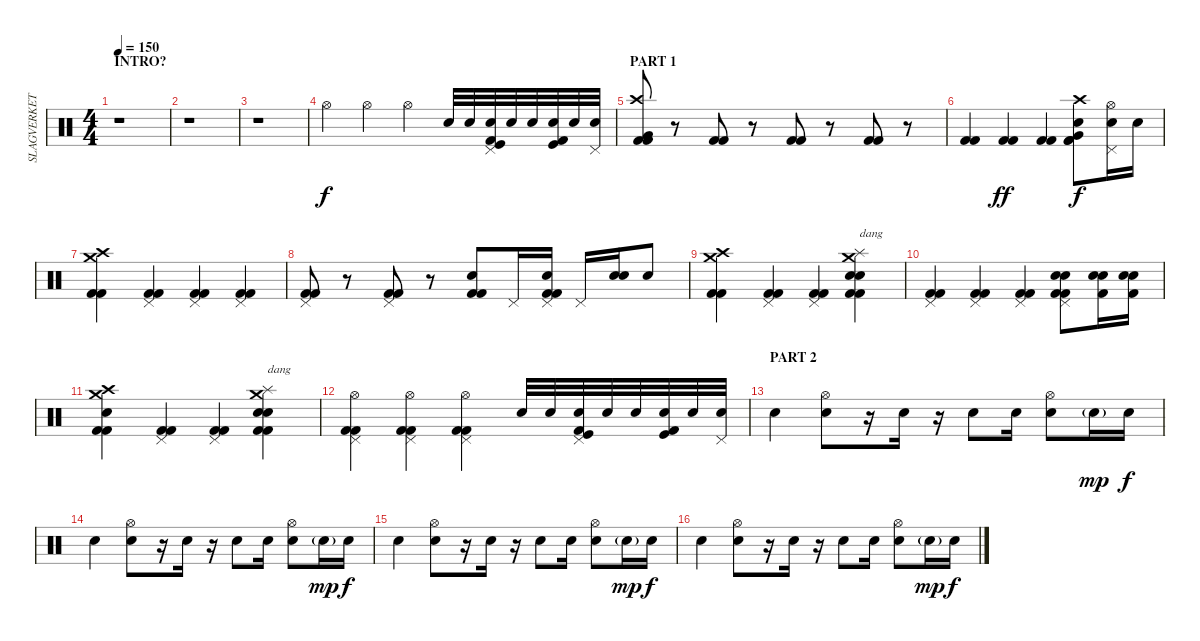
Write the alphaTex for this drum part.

\track ("SLAGVERKET" "SLAGVERKET") {instrument percussion}
\staff {score}
\articulation defaults
\ts (4 4)
\section ("" "INTRO?")
\tempo 150
\clef neutral
\ks c
r.1{dy f} |
r.1 |
r.1 |
"Hi-Hat (open)".4 "Hi-Hat (open)".4 "Hi-Hat (open)".4 "Electric Snare (hit)".32 "Electric Snare (hit)".32 ("Pedal Hi-Hat (hit)" "Electric Snare (hit)" "Kick (hit) 2" "Kick (hit)").32 "Electric Snare (hit)".32 "Electric Snare (hit)".32 ("Electric Snare (hit)" "Kick (hit) 2" "Kick (hit)").32 "Electric Snare (hit)".32 ("Pedal Hi-Hat (hit)" "Electric Snare (hit)").32 |
\section ("" "PART 1")
("Crash high (hit)" "Very Low Tom (hit)" "Kick (hit) 2" "Kick (hit) 2").8 r.8 ("Kick (hit) 2" "Kick (hit) 2").8 r.8 ("Kick (hit) 2" "Kick (hit) 2").8 r.8 ("Kick (hit) 2" "Kick (hit) 2").8 r.8 |
("Kick (hit) 2" "Kick (hit) 2").4 ("Kick (hit) 2" "Kick (hit) 2").4{dy ff} ("Kick (hit) 2" "Kick (hit) 2").4 ("Crash high (hit)" "Electric Snare (hit)" "Very Low Tom (hit)" "Kick (hit) 2" "Kick (hit) 2").8{dy f} ("Pedal Hi-Hat (hit)" "Hi-Hat (open)" "Electric Snare (hit)").16 "Electric Snare (hit)".16 |
("Crash high (hit)" "Crash medium (hit)" "Kick (hit) 2" "Kick (hit) 2").4 ("Pedal Hi-Hat (hit)" "Kick (hit) 2" "Kick (hit) 2").4 ("Pedal Hi-Hat (hit)" "Kick (hit) 2" "Kick (hit) 2").4 ("Pedal Hi-Hat (hit)" "Kick (hit) 2" "Kick (hit) 2").4 |
("Pedal Hi-Hat (hit)" "Kick (hit) 2" "Kick (hit) 2").8 r.8 ("Pedal Hi-Hat (hit)" "Kick (hit) 2" "Kick (hit) 2").8 r.8 ("Electric Snare (hit)" "Kick (hit) 2" "Kick (hit) 2").8 "Pedal Hi-Hat (hit)".16 ("Pedal Hi-Hat (hit)" "Electric Snare (hit)" "Kick (hit) 2" "Kick (hit) 2").16 "Pedal Hi-Hat (hit)".16 ("Electric Snare (hit)" "Snare (hit) 2").16 "Electric Snare (hit)".8 |
("Crash high (hit)" "Crash medium (hit)" "Kick (hit) 2" "Kick (hit) 2").4 ("Pedal Hi-Hat (hit)" "Kick (hit) 2" "Kick (hit) 2").4 ("Pedal Hi-Hat (hit)" "Kick (hit) 2" "Kick (hit) 2").4 ("Splash (hit)" "Electric Snare (hit)" "Crash medium (hit)" "Snare (hit) 2" "Kick (hit) 2" "Kick (hit) 2").4{txt "dang"} |
("Pedal Hi-Hat (hit)" "Kick (hit) 2" "Kick (hit) 2").4 ("Pedal Hi-Hat (hit)" "Kick (hit) 2" "Kick (hit) 2").4 ("Pedal Hi-Hat (hit)" "Kick (hit) 2" "Kick (hit) 2").4 ("Pedal Hi-Hat (hit)" "Electric Snare (hit)" "Snare (hit) 2" "Kick (hit) 2" "Kick (hit) 2").8 ("Electric Snare (hit)" "Snare (hit) 2" "Kick (hit) 2").16 ("Electric Snare (hit)" "Snare (hit) 2" "Kick (hit) 2").16 |
("Crash high (hit)" "Crash medium (hit)" "Electric Snare (hit)" "Kick (hit) 2" "Kick (hit) 2").4 ("Pedal Hi-Hat (hit)" "Kick (hit) 2" "Kick (hit) 2").4 ("Pedal Hi-Hat (hit)" "Kick (hit) 2" "Kick (hit) 2").4 ("Splash (hit)" "Electric Snare (hit)" "Crash medium (hit)" "Snare (hit) 2" "Kick (hit) 2" "Kick (hit) 2").4{txt "dang"} |
("Pedal Hi-Hat (hit)" "Hi-Hat (open)" "Kick (hit) 2" "Kick (hit) 2").4 ("Pedal Hi-Hat (hit)" "Hi-Hat (open)" "Kick (hit) 2" "Kick (hit) 2").4 ("Pedal Hi-Hat (hit)" "Hi-Hat (open)" "Kick (hit) 2" "Kick (hit) 2").4 "Electric Snare (hit)".32 "Electric Snare (hit)".32 ("Pedal Hi-Hat (hit)" "Electric Snare (hit)" "Kick (hit) 2" "Kick (hit)").32 "Electric Snare (hit)".32 "Electric Snare (hit)".32 ("Electric Snare (hit)" "Kick (hit) 2" "Kick (hit)").32 "Electric Snare (hit)".32 ("Pedal Hi-Hat (hit)" "Electric Snare (hit)").32 |
\section ("" "PART 2")
"Electric Snare (hit)".4 ("Hi-Hat (open)" "Snare (hit) 2").8 r.16 "Snare (hit) 2".16 r.16 "Electric Snare (hit)".8 "Electric Snare (hit)".16 ("Electric Snare (hit)" "Hi-Hat (open)").8 "Electric Snare (hit)"{g}.16{dy mp} "Electric Snare (hit)".16{dy f} |
"Electric Snare (hit)".4 ("Hi-Hat (open)" "Snare (hit) 2").8 r.16 "Snare (hit) 2".16 r.16 "Electric Snare (hit)".8 "Electric Snare (hit)".16 ("Electric Snare (hit)" "Hi-Hat (open)").8 "Electric Snare (hit)"{g}.16{dy mp} "Electric Snare (hit)".16{dy f} |
"Electric Snare (hit)".4 ("Hi-Hat (open)" "Snare (hit) 2").8 r.16 "Snare (hit) 2".16 r.16 "Electric Snare (hit)".8 "Electric Snare (hit)".16 ("Electric Snare (hit)" "Hi-Hat (open)").8 "Electric Snare (hit)"{g}.16{dy mp} "Electric Snare (hit)".16{dy f} |
"Electric Snare (hit)".4 ("Hi-Hat (open)" "Snare (hit) 2").8 r.16 "Snare (hit) 2".16 r.16 "Electric Snare (hit)".8 "Electric Snare (hit)".16 ("Electric Snare (hit)" "Hi-Hat (open)").8 "Electric Snare (hit)"{g}.16{dy mp} "Electric Snare (hit)".16{dy f}
